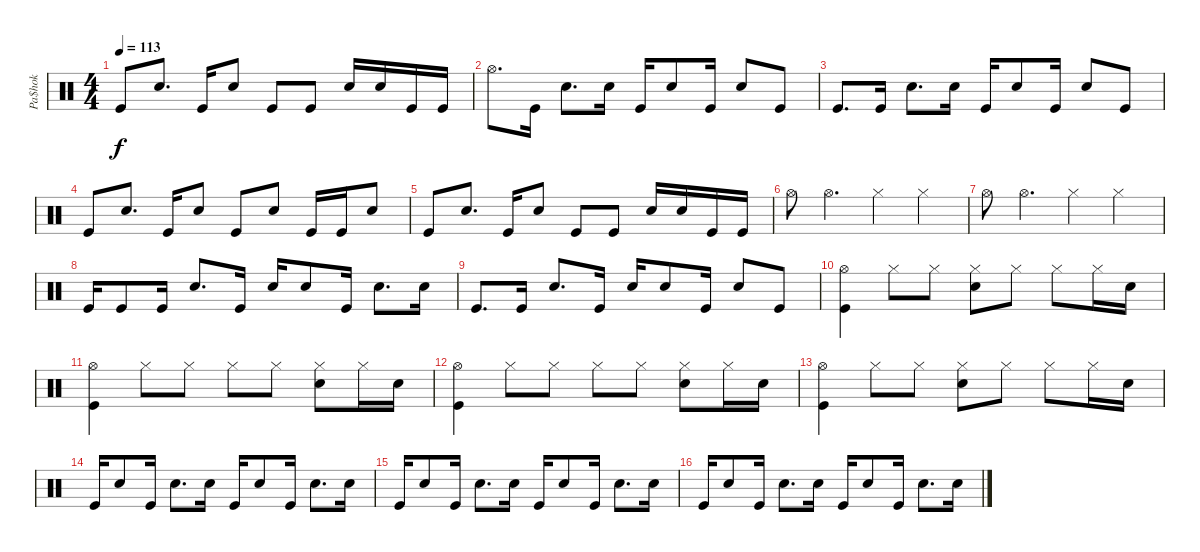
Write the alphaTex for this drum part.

\track ("Pa$hok" "Pa$hok") {instrument percussion}
\staff {score}
\articulation defaults
\ts (4 4)
\tempo 113
\clef neutral
\ks c "Kick (hit)".8{dy f} "Snare (hit) 2".8{d} "Kick (hit)".16 "Snare (hit) 2".8 "Kick (hit)".8 "Kick (hit)".8 "Snare (hit) 2".16 "Snare (hit) 2".16 "Kick (hit)".16 "Kick (hit)".16
|
"Hi-Hat (open)".8{d} "Kick (hit)".16 "Snare (hit) 2".8{d} "Snare (hit) 2".16 "Kick (hit)".16 "Snare (hit) 2".8 "Kick (hit)".16 "Snare (hit) 2".8 "Kick (hit)".8 |
"Kick (hit)".8{d} "Kick (hit)".16 "Snare (hit) 2".8{d} "Snare (hit) 2".16 "Kick (hit)".16 "Snare (hit) 2".8 "Kick (hit)".16 "Snare (hit) 2".8 "Kick (hit)".8 |
"Kick (hit)".8 "Snare (hit) 2".8{d} "Kick (hit)".16 "Snare (hit) 2".8 "Kick (hit)".8 "Snare (hit) 2".8 "Kick (hit)".16 "Kick (hit)".16 "Snare (hit) 2".8 |
"Kick (hit)".8 "Snare (hit) 2".8{d} "Kick (hit)".16 "Snare (hit) 2".8 "Kick (hit)".8 "Kick (hit)".8 "Snare (hit) 2".16 "Snare (hit) 2".16 "Kick (hit)".16 "Kick (hit)".16 |
"Hi-Hat (open)".8 "Hi-Hat (open)".4{d} "Hi-Hat (closed)".4 "Hi-Hat (closed)".4 |
"Hi-Hat (open)".8 "Hi-Hat (open)".4{d} "Hi-Hat (closed)".4 "Hi-Hat (closed)".4 |
"Kick (hit)".16 "Kick (hit)".8 "Kick (hit)".16 "Snare (hit) 2".8{d} "Kick (hit)".16 "Snare (hit) 2".16 "Snare (hit) 2".8 "Kick (hit)".16 "Snare (hit) 2".8{d} "Snare (hit) 2".16 |
"Kick (hit)".8{d} "Kick (hit)".16 "Snare (hit) 2".8{d} "Kick (hit)".16 "Snare (hit) 2".16 "Snare (hit) 2".8 "Kick (hit)".16 "Snare (hit) 2".8 "Kick (hit)".8 |
("Hi-Hat (open)" "Kick (hit)").4 "Hi-Hat (closed)".8 "Hi-Hat (closed)".8 ("Snare (hit) 2" "Hi-Hat (closed)").8 "Hi-Hat (closed)".8 "Hi-Hat (closed)".8 "Hi-Hat (closed)".16 "Snare (hit) 2".16 |
("Hi-Hat (open)" "Kick (hit)").4 "Hi-Hat (closed)".8 "Hi-Hat (closed)".8 "Hi-Hat (closed)".8 "Hi-Hat (closed)".8 ("Hi-Hat (closed)" "Snare (hit) 2").8 "Hi-Hat (closed)".16 "Snare (hit) 2".16 |
("Hi-Hat (open)" "Kick (hit)").4 "Hi-Hat (closed)".8 "Hi-Hat (closed)".8 "Hi-Hat (closed)".8 "Hi-Hat (closed)".8 ("Hi-Hat (closed)" "Snare (hit) 2").8 "Hi-Hat (closed)".16 "Snare (hit) 2".16 |
("Hi-Hat (open)" "Kick (hit)").4 "Hi-Hat (closed)".8 "Hi-Hat (closed)".8 ("Snare (hit) 2" "Hi-Hat (closed)").8 "Hi-Hat (closed)".8 "Hi-Hat (closed)".8 "Hi-Hat (closed)".16 "Snare (hit) 2".16 |
"Kick (hit)".16 "Snare (hit) 2".8 "Kick (hit)".16 "Snare (hit) 2".8{d} "Snare (hit) 2".16 "Kick (hit)".16 "Snare (hit) 2".8 "Kick (hit)".16 "Snare (hit) 2".8{d} "Snare (hit) 2".16 |
"Kick (hit)".16 "Snare (hit) 2".8 "Kick (hit)".16 "Snare (hit) 2".8{d} "Snare (hit) 2".16 "Kick (hit)".16 "Snare (hit) 2".8 "Kick (hit)".16 "Snare (hit) 2".8{d} "Snare (hit) 2".16 |
"Kick (hit)".16 "Snare (hit) 2".8 "Kick (hit)".16 "Snare (hit) 2".8{d} "Snare (hit) 2".16 "Kick (hit)".16 "Snare (hit) 2".8 "Kick (hit)".16 "Snare (hit) 2".8{d} "Snare (hit) 2".16
